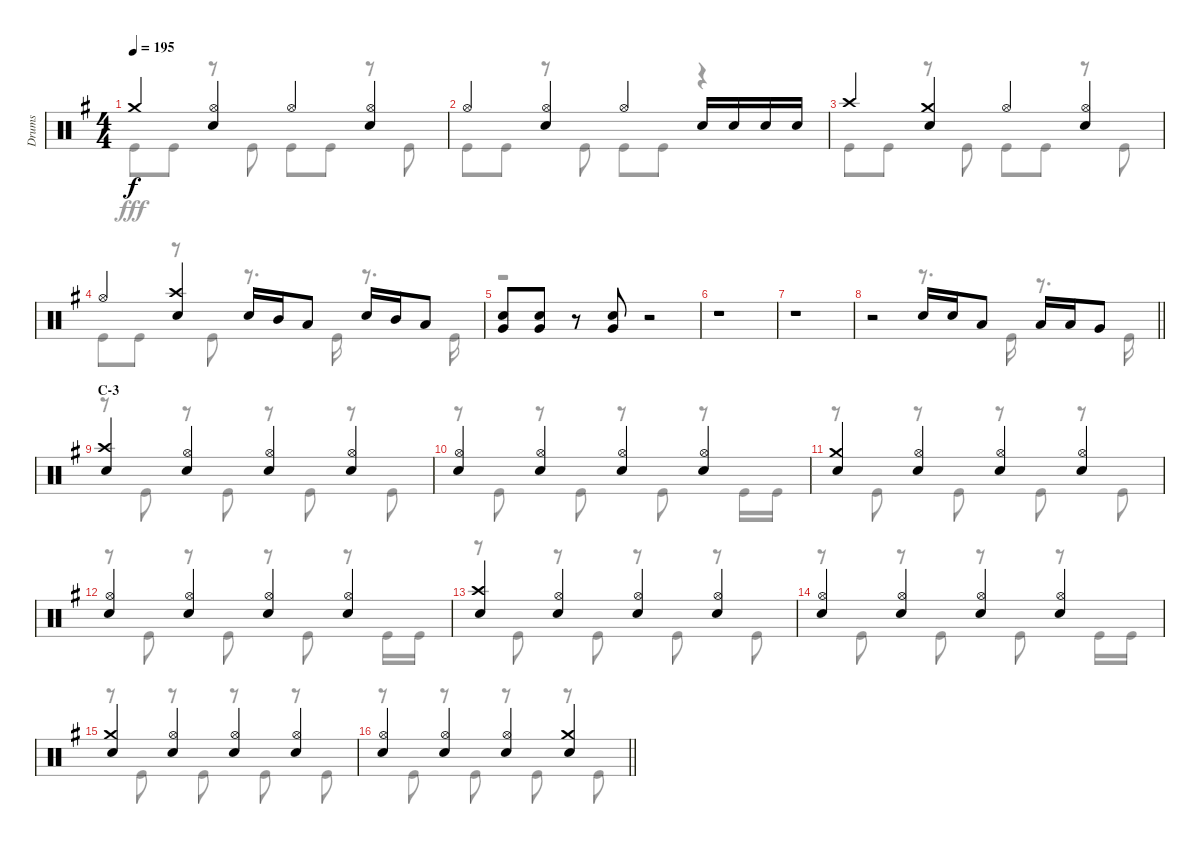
\track ("Drums" "Drums") {instrument percussion}
\staff {score}
\articulation defaults
\voice
\ts (4 4)
\tempo 195
\clef neutral
\ks g "Crash medium (hit)".4{dy f}
("Hi-Hat (open)" "Snare (hit) 2").4 "Hi-Hat (open)".4 ("Hi-Hat (open)" "Snare (hit) 2").4 |
"Hi-Hat (open)".4 ("Hi-Hat (open)" "Snare (hit) 2").4 "Hi-Hat (open)".4 "Snare (hit) 2".16 "Snare (hit) 2".16 "Snare (hit) 2".16 "Snare (hit) 2".16 |
"Crash high (hit)".4 ("Crash medium (hit)" "Snare (hit) 2").4 "Hi-Hat (open)".4 ("Hi-Hat (open)" "Snare (hit) 2").4 |
"Hi-Hat (open)".4 ("Crash high (hit)" "Snare (hit) 2").4 "Snare (hit) 2".16 "Mid Tom (hit)".16 "Low Tom (hit)".8 "Snare (hit) 2".16 "Mid Tom (hit)".16 "Low Tom (hit)".8 |
("Snare (hit) 2" "Very Low Tom (hit)").8 ("Snare (hit) 2" "Very Low Tom (hit)").8 r.8 ("Snare (hit) 2" "Very Low Tom (hit)").8 r.2 |
r.1 |
r.1 |
\barLineRight lightlight
r.2 "Snare (hit) 2".16 "Snare (hit) 2".16 "Low Tom (hit)".8 "Low Tom (hit)".16 "Low Tom (hit)".16 "Very Low Tom (hit)".8 |
\section ("" "C-3")
("Crash high (hit)" "Snare (hit) 2").4 ("Hi-Hat (open)" "Snare (hit) 2").4 ("Hi-Hat (open)" "Snare (hit) 2").4 ("Hi-Hat (open)" "Snare (hit) 2").4 |
("Hi-Hat (open)" "Snare (hit) 2").4 ("Hi-Hat (open)" "Snare (hit) 2").4 ("Hi-Hat (open)" "Snare (hit) 2").4 ("Hi-Hat (open)" "Snare (hit) 2").4 |
("Crash medium (hit)" "Snare (hit) 2").4 ("Hi-Hat (open)" "Snare (hit) 2").4 ("Hi-Hat (open)" "Snare (hit) 2").4 ("Hi-Hat (open)" "Snare (hit) 2").4 |
("Hi-Hat (open)" "Snare (hit) 2").4 ("Hi-Hat (open)" "Snare (hit) 2").4 ("Hi-Hat (open)" "Snare (hit) 2").4 ("Hi-Hat (open)" "Snare (hit) 2").4 |
("Crash high (hit)" "Snare (hit) 2").4 ("Hi-Hat (open)" "Snare (hit) 2").4 ("Hi-Hat (open)" "Snare (hit) 2").4 ("Hi-Hat (open)" "Snare (hit) 2").4 |
("Hi-Hat (open)" "Snare (hit) 2").4 ("Hi-Hat (open)" "Snare (hit) 2").4 ("Hi-Hat (open)" "Snare (hit) 2").4 ("Hi-Hat (open)" "Snare (hit) 2").4 |
("Crash medium (hit)" "Snare (hit) 2").4 ("Hi-Hat (open)" "Snare (hit) 2").4 ("Hi-Hat (open)" "Snare (hit) 2").4 ("Hi-Hat (open)" "Snare (hit) 2").4 |
\barLineRight lightlight
("Hi-Hat (open)" "Snare (hit) 2").4 ("Hi-Hat (open)" "Snare (hit) 2").4 ("Hi-Hat (open)" "Snare (hit) 2").4 ("Crash medium (hit)" "Snare (hit) 2").4
\voice
\clef neutral
\ottava regular
\simile none
\ks g "Kick (hit)".8{dy fff} "Kick (hit)".8
r.8 "Kick (hit)".8 "Kick (hit)".8 "Kick (hit)".8 r.8 "Kick (hit)".8 |
"Kick (hit)".8 "Kick (hit)".8 r.8 "Kick (hit)".8 "Kick (hit)".8 "Kick (hit)".8 r.4 |
"Kick (hit)".8 "Kick (hit)".8 r.8 "Kick (hit)".8 "Kick (hit)".8 "Kick (hit)".8 r.8 "Kick (hit)".8 |
"Kick (hit)".8 "Kick (hit)".8 r.8 "Kick (hit)".8 r.8{d} "Kick (hit)".16 r.8{d} "Kick (hit)".16 |
r.1 |
r.1 |
r.1 |
\barLineRight lightlight
r.2 r.8{d} "Kick (hit)".16 r.8{d} "Kick (hit)".16 |
r.8 "Kick (hit)".8 r.8 "Kick (hit)".8 r.8 "Kick (hit)".8 r.8 "Kick (hit)".8 |
r.8 "Kick (hit)".8 r.8 "Kick (hit)".8 r.8 "Kick (hit)".8 r.8 "Kick (hit)".16 "Kick (hit)".16 |
r.8 "Kick (hit)".8 r.8 "Kick (hit)".8 r.8 "Kick (hit)".8 r.8 "Kick (hit)".8 |
r.8 "Kick (hit)".8 r.8 "Kick (hit)".8 r.8 "Kick (hit)".8 r.8 "Kick (hit)".16 "Kick (hit)".16 |
r.8 "Kick (hit)".8 r.8 "Kick (hit)".8 r.8 "Kick (hit)".8 r.8 "Kick (hit)".8 |
r.8 "Kick (hit)".8 r.8 "Kick (hit)".8 r.8 "Kick (hit)".8 r.8 "Kick (hit)".16 "Kick (hit)".16 |
r.8 "Kick (hit)".8 r.8 "Kick (hit)".8 r.8 "Kick (hit)".8 r.8 "Kick (hit)".8 |
\barLineRight lightlight
r.8 "Kick (hit)".8 r.8 "Kick (hit)".8 r.8 "Kick (hit)".8 r.8 "Kick (hit)".8
